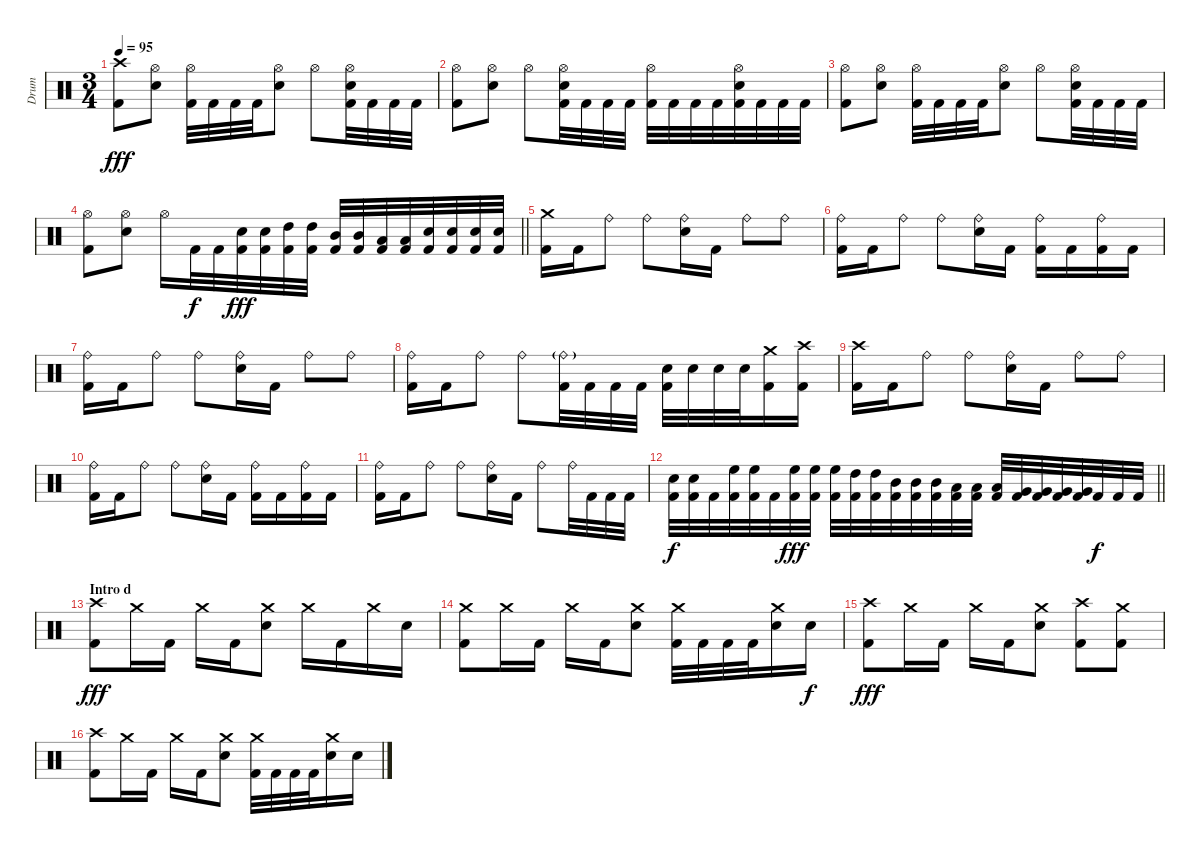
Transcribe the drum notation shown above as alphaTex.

\track ("Drum" "Drum") {instrument percussion}
\staff {score}
\articulation defaults
\ts (3 4)
\tempo 95
\clef neutral
\ks c
("Crash high (hit)" "Kick (hit) 2").8{dy fff} ("Hi-Hat (open)" "Electric Snare (hit)").8 ("Hi-Hat (open)" "Kick (hit) 2").32 "Kick (hit) 2".32 "Kick (hit) 2".32 "Kick (hit) 2".32 ("Hi-Hat (open)" "Electric Snare (hit)").8 "Hi-Hat (open)".8 ("Hi-Hat (open)" "Electric Snare (hit)" "Kick (hit) 2").32 "Kick (hit) 2".32 "Kick (hit) 2".32 "Kick (hit) 2".32 |
("Hi-Hat (open)" "Kick (hit) 2").8 ("Hi-Hat (open)" "Electric Snare (hit)").8 "Hi-Hat (open)".8 ("Hi-Hat (open)" "Electric Snare (hit)" "Kick (hit) 2").32 "Kick (hit) 2".32 "Kick (hit) 2".32 "Kick (hit) 2".32 ("Hi-Hat (open)" "Kick (hit) 2").32 "Kick (hit) 2".32 "Kick (hit) 2".32 "Kick (hit) 2".32 ("Hi-Hat (open)" "Electric Snare (hit)" "Kick (hit) 2").32 "Kick (hit) 2".32 "Kick (hit) 2".32 "Kick (hit) 2".32 |
("Hi-Hat (open)" "Kick (hit) 2").8 ("Hi-Hat (open)" "Electric Snare (hit)").8 ("Hi-Hat (open)" "Kick (hit) 2").32 "Kick (hit) 2".32 "Kick (hit) 2".32 "Kick (hit) 2".32 ("Hi-Hat (open)" "Electric Snare (hit)").8 "Hi-Hat (open)".8 ("Hi-Hat (open)" "Electric Snare (hit)" "Kick (hit) 2").32 "Kick (hit) 2".32 "Kick (hit) 2".32 "Kick (hit) 2".32 |
\barLineRight lightlight
("Hi-Hat (open)" "Kick (hit) 2").8 ("Hi-Hat (open)" "Electric Snare (hit)").8 "Hi-Hat (open)".16 "Kick (hit) 2".32{dy f} "Kick (hit) 2".32 ("Electric Snare (hit)" "Kick (hit) 2").32{dy fff} ("Electric Snare (hit)" "Kick (hit) 2").32 ("High Tom (hit)" "Kick (hit) 2").32 ("High Tom (hit)" "Kick (hit) 2").32 ("Mid Tom (hit)" "Kick (hit) 2").32 ("Mid Tom (hit)" "Kick (hit) 2").32 ("Low Tom (hit)" "Kick (hit) 2").32 ("Low Tom (hit)" "Kick (hit) 2").32 ("Electric Snare (hit)" "Kick (hit) 2").32 ("Electric Snare (hit)" "Kick (hit) 2").32 ("Electric Snare (hit)" "Kick (hit) 2").32 ("Electric Snare (hit)" "Kick (hit) 2").32 |
("Crash medium (hit)" "Kick (hit) 2").16 "Kick (hit) 2".16 "Ride (bell)".8 "Ride (bell)".8 ("Ride (bell)" "Electric Snare (hit)").16 "Kick (hit) 2".16 "Ride (bell)".8 "Ride (bell)".8 |
("Ride (bell)" "Kick (hit) 2").16 "Kick (hit) 2".16 "Ride (bell)".8 "Ride (bell)".8 ("Ride (bell)" "Electric Snare (hit)").16 "Kick (hit) 2".16 ("Ride (bell)" "Kick (hit) 2").16 "Kick (hit) 2".16 ("Ride (bell)" "Kick (hit) 2").16 "Kick (hit) 2".16 |
("Ride (bell)" "Kick (hit) 2").16 "Kick (hit) 2".16 "Ride (bell)".8 "Ride (bell)".8 ("Ride (bell)" "Electric Snare (hit)").16 "Kick (hit) 2".16 "Ride (bell)".8 "Ride (bell)".8 |
("Ride (bell)" "Kick (hit) 2").16 "Kick (hit) 2".16 "Ride (bell)".8 "Ride (bell)".8 ("Ride (bell)"{g} "Kick (hit) 2").32 "Kick (hit) 2".32 "Kick (hit) 2".32 "Kick (hit) 2".32 ("Electric Snare (hit)" "Kick (hit) 2").32 "Electric Snare (hit)".32 "Electric Snare (hit)".32 "Electric Snare (hit)".32 ("Crash medium (hit)" "Kick (hit) 2").16 ("Crash high (hit)" "Kick (hit) 2").16 |
("Crash high (hit)" "Kick (hit) 2").16 "Kick (hit) 2".16 "Ride (bell)".8 "Ride (bell)".8 ("Ride (bell)" "Electric Snare (hit)").16 "Kick (hit) 2".16 "Ride (bell)".8 "Ride (bell)".8 |
("Ride (bell)" "Kick (hit) 2").16 "Kick (hit) 2".16 "Ride (bell)".8 "Ride (bell)".8 ("Ride (bell)" "Electric Snare (hit)").16 "Kick (hit) 2".16 ("Ride (bell)" "Kick (hit) 2").16 "Kick (hit) 2".16 ("Ride (bell)" "Kick (hit) 2").16 "Kick (hit) 2".16 |
("Ride (bell)" "Kick (hit) 2").16 "Kick (hit) 2".16 "Ride (bell)".8 "Ride (bell)".8 ("Ride (bell)" "Electric Snare (hit)").16 "Kick (hit) 2".16 "Ride (bell)".8 "Ride (bell)".32 "Kick (hit) 2".32 "Kick (hit) 2".32 "Kick (hit) 2".32 |
\barLineRight lightlight
("Electric Snare (hit)" "Kick (hit) 2").32{dy f} ("Electric Snare (hit)" "Kick (hit) 2").32 "Kick (hit) 2".32 ("High Floor Tom (hit)" "Kick (hit) 2").32 ("High Floor Tom (hit)" "Kick (hit) 2").32 "Kick (hit) 2".32 ("High Floor Tom (hit)" "Kick (hit) 2").32{dy fff} ("High Floor Tom (hit)" "Kick (hit) 2").32 ("High Floor Tom (hit)" "Kick (hit) 2").32 ("High Tom (hit)" "Kick (hit) 2").32 ("High Tom (hit)" "Kick (hit) 2").32 ("Mid Tom (hit)" "Kick (hit) 2").32 ("Mid Tom (hit)" "Kick (hit) 2").32 ("Mid Tom (hit)" "Kick (hit) 2").32 ("Low Tom (hit)" "Kick (hit) 2").32 ("Low Tom (hit)" "Kick (hit) 2").32 ("Low Tom (hit)" "Kick (hit) 2").32 ("Very Low Tom (hit)" "Kick (hit) 2").32 ("Very Low Tom (hit)" "Kick (hit) 2").32 ("Very Low Tom (hit)" "Kick (hit) 2").32 ("Very Low Tom (hit)" "Kick (hit) 2").32 "Kick (hit) 2".32{dy f} "Kick (hit) 2".32 "Kick (hit) 2".32 |
\section ("" "Intro d")
("Crash high (hit)" "Kick (hit) 2").8{dy fff} "Crash medium (hit)".16 "Kick (hit) 2".16 "Crash medium (hit)".16 "Kick (hit) 2".16 ("Crash medium (hit)" "Electric Snare (hit)").8 "Crash medium (hit)".16 "Kick (hit) 2".16 "Crash medium (hit)".16 "Electric Snare (hit)".16 |
("Crash medium (hit)" "Kick (hit) 2").8 "Crash medium (hit)".16 "Kick (hit) 2".16 "Crash medium (hit)".16 "Kick (hit) 2".16 ("Crash medium (hit)" "Electric Snare (hit)").8 ("Crash medium (hit)" "Kick (hit) 2").32 "Kick (hit) 2".32 "Kick (hit) 2".32 "Kick (hit) 2".32 ("Crash medium (hit)" "Electric Snare (hit)").16 "Electric Snare (hit)".16{dy f} |
("Crash high (hit)" "Kick (hit) 2").8{dy fff} "Crash medium (hit)".16 "Kick (hit) 2".16 "Crash medium (hit)".16 "Kick (hit) 2".16 ("Crash medium (hit)" "Electric Snare (hit)").8 ("Crash high (hit)" "Kick (hit) 2").8 ("Crash medium (hit)" "Kick (hit) 2").8 |
("Crash high (hit)" "Kick (hit) 2").8 "Crash medium (hit)".16 "Kick (hit) 2".16 "Crash medium (hit)".16 "Kick (hit) 2".16 ("Crash medium (hit)" "Electric Snare (hit)").8 ("Crash medium (hit)" "Kick (hit) 2").32 "Kick (hit) 2".32 "Kick (hit) 2".32 "Kick (hit) 2".32 ("Crash medium (hit)" "Electric Snare (hit)").16 "Electric Snare (hit)".16
